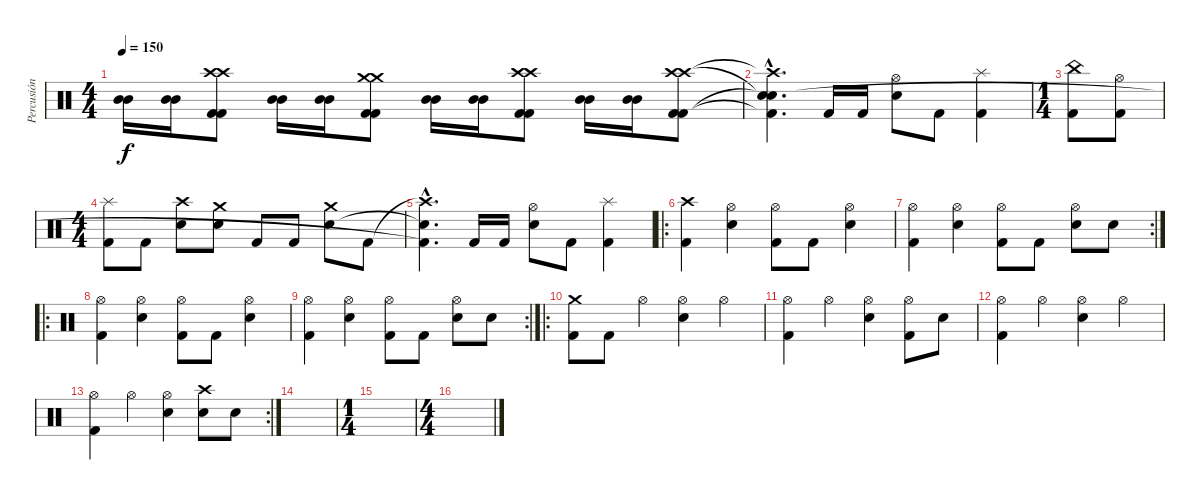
\track ("Percusión" "Percusión") {instrument percussion}
\staff {score}
\articulation defaults
\ts (4 4)
\tempo 150
\clef neutral
\ks c
("Mid Tom (hit)" "Mid Tom (hit)").16{dy f} ("Mid Tom (hit)" "Mid Tom (hit)").16 ("Crash high (hit)" "Crash high (hit)" "Kick (hit) 2" "Kick (hit) 2").8 ("Mid Tom (hit)" "Mid Tom (hit)").16 ("Mid Tom (hit)" "Mid Tom (hit)").16 ("Crash medium (hit)" "Crash medium (hit)" "Kick (hit) 2" "Kick (hit) 2").8 ("Mid Tom (hit)" "Mid Tom (hit)").16 ("Mid Tom (hit)" "Mid Tom (hit)").16 ("Crash high (hit)" "Crash high (hit)" "Kick (hit) 2" "Kick (hit) 2").8 ("Mid Tom (hit)" "Mid Tom (hit)").16 ("Mid Tom (hit)" "Mid Tom (hit)").16 ("Crash high (hit)" "Crash high (hit)" "Kick (hit) 2" "Kick (hit) 2").8 |
("Snare (hit)"{hac t} "Crash high (hit)"{hac t} "Snare (hit)"{hac t} "Kick (hit) 2"{hac t}).4{d} "Kick (hit) 2".16 "Kick (hit) 2".16 ("Hi-Hat (open)" "Electric Snare (hit)").8 "Kick (hit) 2".8 ("Splash (hit)" "Kick (hit) 2").4 |
\ts (1 4)
("China (hit)" "Kick (hit) 2").8 ("Hi-Hat (open)" "Kick (hit) 2").8 |
\ts (4 4)
("Splash (hit)" "Kick (hit) 2").8 "Kick (hit) 2".8 ("Crash high (hit)" "Electric Snare (hit)").8 ("Crash medium (hit)" "Electric Snare (hit)").8 "Kick (hit) 2".8 "Kick (hit) 2".8 ("Crash medium (hit)" "Electric Snare (hit)").8 "Kick (hit) 2".8 |
("Crash high (hit)"{hac t} "Snare (hit)"{hac t} "Kick (hit) 2"{hac t}).4{d} "Kick (hit) 2".16 "Kick (hit) 2".16 ("Hi-Hat (open)" "Electric Snare (hit)").8 "Kick (hit) 2".8 ("Splash (hit)" "Kick (hit) 2").4 |
\ro
("Crash high (hit)" "Kick (hit) 2").4 ("Hi-Hat (open)" "Electric Snare (hit)").4 ("Hi-Hat (open)" "Kick (hit) 2").8 "Kick (hit) 2".8 ("Hi-Hat (open)" "Electric Snare (hit)").4 |
\rc 2
("Hi-Hat (open)" "Kick (hit) 2").4 ("Hi-Hat (open)" "Electric Snare (hit)").4 ("Hi-Hat (open)" "Kick (hit) 2").8 "Kick (hit) 2".8 ("Hi-Hat (open)" "Electric Snare (hit)").8 "Electric Snare (hit)".8 |
\ro
("Hi-Hat (open)" "Kick (hit) 2").4 ("Hi-Hat (open)" "Electric Snare (hit)").4 ("Hi-Hat (open)" "Kick (hit) 2").8 "Kick (hit) 2".8 ("Hi-Hat (open)" "Electric Snare (hit)").4 |
\rc 2
("Hi-Hat (open)" "Kick (hit) 2").4 ("Hi-Hat (open)" "Electric Snare (hit)").4 ("Hi-Hat (open)" "Kick (hit) 2").8 "Kick (hit) 2".8 ("Hi-Hat (open)" "Electric Snare (hit)").8 "Electric Snare (hit)".8 |
\ro
("Crash medium (hit)" "Kick (hit) 2").8 "Kick (hit) 2".8 "Hi-Hat (open)".4 ("Hi-Hat (open)" "Electric Snare (hit)").4 "Hi-Hat (open)".4 |
("Hi-Hat (open)" "Kick (hit) 2").4 "Hi-Hat (open)".4 ("Hi-Hat (open)" "Electric Snare (hit)").4 ("Hi-Hat (open)" "Kick (hit) 2").8 "Electric Snare (hit)".8 |
("Hi-Hat (open)" "Kick (hit) 2").4 "Hi-Hat (open)".4 ("Hi-Hat (open)" "Electric Snare (hit)").4 "Hi-Hat (open)".4 |
\rc 2
("Hi-Hat (open)" "Kick (hit) 2").4 "Hi-Hat (open)".4 ("Hi-Hat (open)" "Electric Snare (hit)").4 ("Crash high (hit)" "Electric Snare (hit)").8 "Electric Snare (hit)".8 |
|
\ts (1 4)
|
\ts (4 4)
